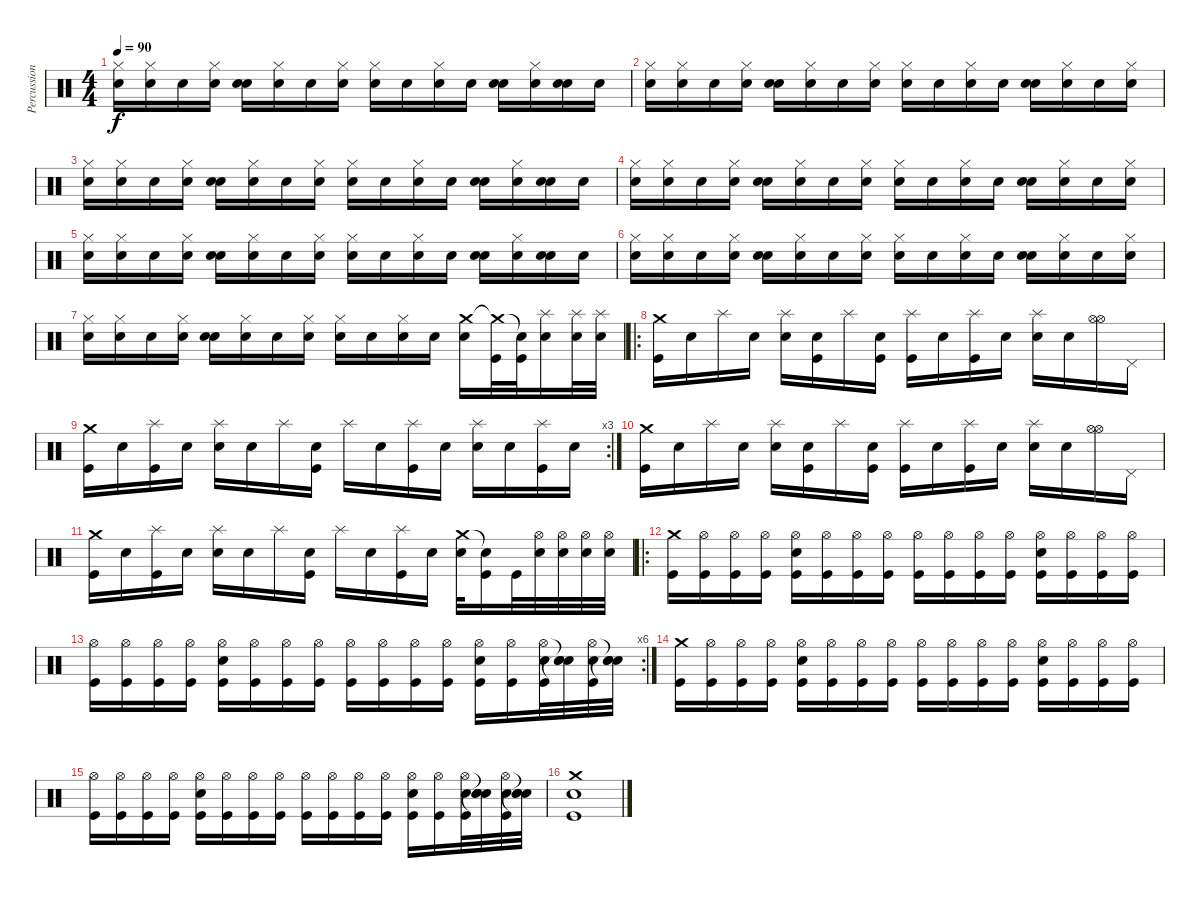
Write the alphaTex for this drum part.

\track ("Percussions" "Percussion") {instrument percussion}
\staff {score}
\articulation defaults
\ts (4 4)
\tempo 90
\clef neutral
\ks c
("Snare (hit)" "Hi-Hat (closed)").16{dy f} ("Snare (hit)" "Hi-Hat (closed)").16 "Snare (hit)".16 ("Snare (hit)" "Hi-Hat (closed)").16 ("Snare (hit)" "Snare (hit)").16 ("Snare (hit)" "Hi-Hat (closed)").16 "Snare (hit)".16 ("Snare (hit)" "Hi-Hat (closed)").16 ("Snare (hit)" "Hi-Hat (closed)").16 "Snare (hit)".16 ("Snare (hit)" "Hi-Hat (closed)").16 "Snare (hit)".16 ("Snare (hit)" "Snare (hit)").16 ("Snare (hit)" "Hi-Hat (closed)").16 ("Snare (hit)" "Snare (hit)").16 "Snare (hit)".16 |
("Snare (hit)" "Hi-Hat (closed)").16 ("Snare (hit)" "Hi-Hat (closed)").16 "Snare (hit)".16 ("Snare (hit)" "Hi-Hat (closed)").16 ("Snare (hit)" "Snare (hit)").16 ("Snare (hit)" "Hi-Hat (closed)").16 "Snare (hit)".16 ("Snare (hit)" "Hi-Hat (closed)").16 ("Snare (hit)" "Hi-Hat (closed)").16 "Snare (hit)".16 ("Snare (hit)" "Hi-Hat (closed)").16 "Snare (hit)".16 ("Snare (hit)" "Snare (hit)").16 ("Snare (hit)" "Hi-Hat (closed)").16 "Snare (hit)".16 ("Snare (hit)" "Hi-Hat (closed)").16 |
("Snare (hit)" "Hi-Hat (closed)").16 ("Snare (hit)" "Hi-Hat (closed)").16 "Snare (hit)".16 ("Snare (hit)" "Hi-Hat (closed)").16 ("Snare (hit)" "Snare (hit)").16 ("Snare (hit)" "Hi-Hat (closed)").16 "Snare (hit)".16 ("Snare (hit)" "Hi-Hat (closed)").16 ("Snare (hit)" "Hi-Hat (closed)").16 "Snare (hit)".16 ("Snare (hit)" "Hi-Hat (closed)").16 "Snare (hit)".16 ("Snare (hit)" "Snare (hit)").16 ("Snare (hit)" "Hi-Hat (closed)").16 ("Snare (hit)" "Snare (hit)").16 "Snare (hit)".16 |
("Snare (hit)" "Hi-Hat (closed)").16 ("Snare (hit)" "Hi-Hat (closed)").16 "Snare (hit)".16 ("Snare (hit)" "Hi-Hat (closed)").16 ("Snare (hit)" "Snare (hit)").16 ("Snare (hit)" "Hi-Hat (closed)").16 "Snare (hit)".16 ("Snare (hit)" "Hi-Hat (closed)").16 ("Snare (hit)" "Hi-Hat (closed)").16 "Snare (hit)".16 ("Snare (hit)" "Hi-Hat (closed)").16 "Snare (hit)".16 ("Snare (hit)" "Snare (hit)").16 ("Snare (hit)" "Hi-Hat (closed)").16 "Snare (hit)".16 ("Snare (hit)" "Hi-Hat (closed)").16 |
("Snare (hit)" "Hi-Hat (closed)").16 ("Snare (hit)" "Hi-Hat (closed)").16 "Snare (hit)".16 ("Snare (hit)" "Hi-Hat (closed)").16 ("Snare (hit)" "Snare (hit)").16 ("Snare (hit)" "Hi-Hat (closed)").16 "Snare (hit)".16 ("Snare (hit)" "Hi-Hat (closed)").16 ("Snare (hit)" "Hi-Hat (closed)").16 "Snare (hit)".16 ("Snare (hit)" "Hi-Hat (closed)").16 "Snare (hit)".16 ("Snare (hit)" "Snare (hit)").16 ("Snare (hit)" "Hi-Hat (closed)").16 ("Snare (hit)" "Snare (hit)").16 "Snare (hit)".16 |
("Snare (hit)" "Hi-Hat (closed)").16 ("Snare (hit)" "Hi-Hat (closed)").16 "Snare (hit)".16 ("Snare (hit)" "Hi-Hat (closed)").16 ("Snare (hit)" "Snare (hit)").16 ("Snare (hit)" "Hi-Hat (closed)").16 "Snare (hit)".16 ("Snare (hit)" "Hi-Hat (closed)").16 ("Snare (hit)" "Hi-Hat (closed)").16 "Snare (hit)".16 ("Snare (hit)" "Hi-Hat (closed)").16 "Snare (hit)".16 ("Snare (hit)" "Snare (hit)").16 ("Snare (hit)" "Hi-Hat (closed)").16 "Snare (hit)".16 ("Snare (hit)" "Hi-Hat (closed)").16 |
("Snare (hit)" "Hi-Hat (closed)").16 ("Snare (hit)" "Hi-Hat (closed)").16 "Snare (hit)".16 ("Snare (hit)" "Hi-Hat (closed)").16 ("Snare (hit)" "Snare (hit)").16 ("Snare (hit)" "Hi-Hat (closed)").16 "Snare (hit)".16 ("Snare (hit)" "Hi-Hat (closed)").16 ("Snare (hit)" "Hi-Hat (closed)").16 "Snare (hit)".16 ("Snare (hit)" "Hi-Hat (closed)").16 "Snare (hit)".16 ("Crash medium (hit)" "Snare (hit) 2").16 ("Crash medium (hit)"{t} "Kick (hit)").32 ("Snare (hit)"{t} "Kick (hit)").32 ("Splash (hit)" "Snare (hit) 2").16 ("Splash (hit)" "Snare (hit) 2").32 ("Splash (hit)" "Snare (hit) 2").32 |
\ro
("Crash medium (hit)" "Kick (hit)").16 "Snare (hit)".16 "Splash (hit)".16 "Snare (hit)".16 ("Splash (hit)" "Snare (hit) 2").16 ("Snare (hit)" "Kick (hit)").16 "Splash (hit)".16 ("Snare (hit)" "Kick (hit)").16 ("Splash (hit)" "Kick (hit)").16 "Snare (hit)".16 ("Splash (hit)" "Kick (hit)").16 "Snare (hit)".16 ("Splash (hit)" "Snare (hit) 2").16 "Snare (hit)".16 ("Hi-Hat (open)" "Hi-Hat (open)").16 "Pedal Hi-Hat (hit)".16 |
\rc 3
("Crash medium (hit)" "Kick (hit)").16 "Snare (hit)".16 ("Splash (hit)" "Kick (hit)").16 "Snare (hit)".16 ("Splash (hit)" "Snare (hit) 2").16 "Snare (hit)".16 "Splash (hit)".16 ("Snare (hit)" "Kick (hit)").16 "Splash (hit)".16 "Snare (hit)".16 ("Splash (hit)" "Kick (hit)").16 "Snare (hit)".16 ("Splash (hit)" "Snare (hit) 2").16 "Snare (hit)".16 ("Splash (hit)" "Kick (hit)").16 "Snare (hit)".16 |
("Crash medium (hit)" "Kick (hit)").16 "Snare (hit)".16 "Splash (hit)".16 "Snare (hit)".16 ("Splash (hit)" "Snare (hit) 2").16 ("Snare (hit)" "Kick (hit)").16 "Splash (hit)".16 ("Snare (hit)" "Kick (hit)").16 ("Splash (hit)" "Kick (hit)").16 "Snare (hit)".16 ("Splash (hit)" "Kick (hit)").16 "Snare (hit)".16 ("Splash (hit)" "Snare (hit) 2").16 "Snare (hit)".16 ("Hi-Hat (open)" "Hi-Hat (open)").16 "Pedal Hi-Hat (hit)".16 |
("Crash medium (hit)" "Kick (hit)").16 "Snare (hit)".16 ("Splash (hit)" "Kick (hit)").16 "Snare (hit)".16 ("Splash (hit)" "Snare (hit) 2").16 "Snare (hit)".16 "Splash (hit)".16 ("Snare (hit)" "Kick (hit)").16 "Splash (hit)".16 "Snare (hit)".16 ("Splash (hit)" "Kick (hit)").16 "Snare (hit)".16 ("Crash medium (hit)" "Snare (hit) 2").32 ("Snare (hit)"{t} "Kick (hit)").16 "Kick (hit)".32 ("Hi-Hat (open)" "Snare (hit) 2").32 ("Hi-Hat (open)" "Snare (hit) 2").32 ("Hi-Hat (open)" "Snare (hit) 2").32 ("Hi-Hat (open)" "Snare (hit) 2").32 |
\ro
("Crash medium (hit)" "Kick (hit)").16 ("Hi-Hat (open)" "Kick (hit)").16 ("Hi-Hat (open)" "Kick (hit)").16 ("Hi-Hat (open)" "Kick (hit)").16 ("Hi-Hat (open)" "Snare (hit) 2" "Kick (hit)").16 ("Hi-Hat (open)" "Kick (hit)").16 ("Hi-Hat (open)" "Kick (hit)").16 ("Hi-Hat (open)" "Kick (hit)").16 ("Hi-Hat (open)" "Kick (hit)").16 ("Hi-Hat (open)" "Kick (hit)").16 ("Hi-Hat (open)" "Kick (hit)").16 ("Hi-Hat (open)" "Kick (hit)").16 ("Hi-Hat (open)" "Snare (hit) 2" "Kick (hit)").16 ("Hi-Hat (open)" "Kick (hit)").16 ("Hi-Hat (open)" "Kick (hit)").16 ("Hi-Hat (open)" "Kick (hit)").16 |
\rc 6
("Hi-Hat (open)" "Kick (hit)").16 ("Hi-Hat (open)" "Kick (hit)").16 ("Hi-Hat (open)" "Kick (hit)").16 ("Hi-Hat (open)" "Kick (hit)").16 ("Hi-Hat (open)" "Snare (hit) 2" "Kick (hit)").16 ("Hi-Hat (open)" "Kick (hit)").16 ("Hi-Hat (open)" "Kick (hit)").16 ("Hi-Hat (open)" "Kick (hit)").16 ("Hi-Hat (open)" "Kick (hit)").16 ("Hi-Hat (open)" "Kick (hit)").16 ("Hi-Hat (open)" "Kick (hit)").16 ("Hi-Hat (open)" "Kick (hit)").16 ("Hi-Hat (open)" "Snare (hit) 2" "Kick (hit)").16 ("Hi-Hat (open)" "Kick (hit)").16 ("Hi-Hat (open)" "Snare (hit) 2" "Kick (hit)").32 ("Snare (hit)"{t} "Snare (hit) 2" "Snare (hit)"{t}).32 ("Hi-Hat (open)" "Snare (hit) 2" "Kick (hit)").32 ("Snare (hit)"{t} "Snare (hit) 2" "Snare (hit)"{t}).32 |
("Crash medium (hit)" "Kick (hit)").16 ("Hi-Hat (open)" "Kick (hit)").16 ("Hi-Hat (open)" "Kick (hit)").16 ("Hi-Hat (open)" "Kick (hit)").16 ("Hi-Hat (open)" "Snare (hit) 2" "Kick (hit)").16 ("Hi-Hat (open)" "Kick (hit)").16 ("Hi-Hat (open)" "Kick (hit)").16 ("Hi-Hat (open)" "Kick (hit)").16 ("Hi-Hat (open)" "Kick (hit)").16 ("Hi-Hat (open)" "Kick (hit)").16 ("Hi-Hat (open)" "Kick (hit)").16 ("Hi-Hat (open)" "Kick (hit)").16 ("Hi-Hat (open)" "Snare (hit) 2" "Kick (hit)").16 ("Hi-Hat (open)" "Kick (hit)").16 ("Hi-Hat (open)" "Kick (hit)").16 ("Hi-Hat (open)" "Kick (hit)").16 |
("Hi-Hat (open)" "Kick (hit)").16 ("Hi-Hat (open)" "Kick (hit)").16 ("Hi-Hat (open)" "Kick (hit)").16 ("Hi-Hat (open)" "Kick (hit)").16 ("Hi-Hat (open)" "Snare (hit) 2" "Kick (hit)").16 ("Hi-Hat (open)" "Kick (hit)").16 ("Hi-Hat (open)" "Kick (hit)").16 ("Hi-Hat (open)" "Kick (hit)").16 ("Hi-Hat (open)" "Kick (hit)").16 ("Hi-Hat (open)" "Kick (hit)").16 ("Hi-Hat (open)" "Kick (hit)").16 ("Hi-Hat (open)" "Kick (hit)").16 ("Hi-Hat (open)" "Snare (hit) 2" "Kick (hit)").16 ("Hi-Hat (open)" "Kick (hit)").16 ("Hi-Hat (open)" "Snare (hit) 2" "Kick (hit)").32 ("Snare (hit)"{t} "Snare (hit) 2" "Snare (hit)"{t}).32 ("Hi-Hat (open)" "Snare (hit) 2" "Kick (hit)").32 ("Snare (hit)"{t} "Snare (hit) 2" "Snare (hit)"{t}).32 |
("Crash medium (hit)" "Snare (hit) 2" "Kick (hit)").1
